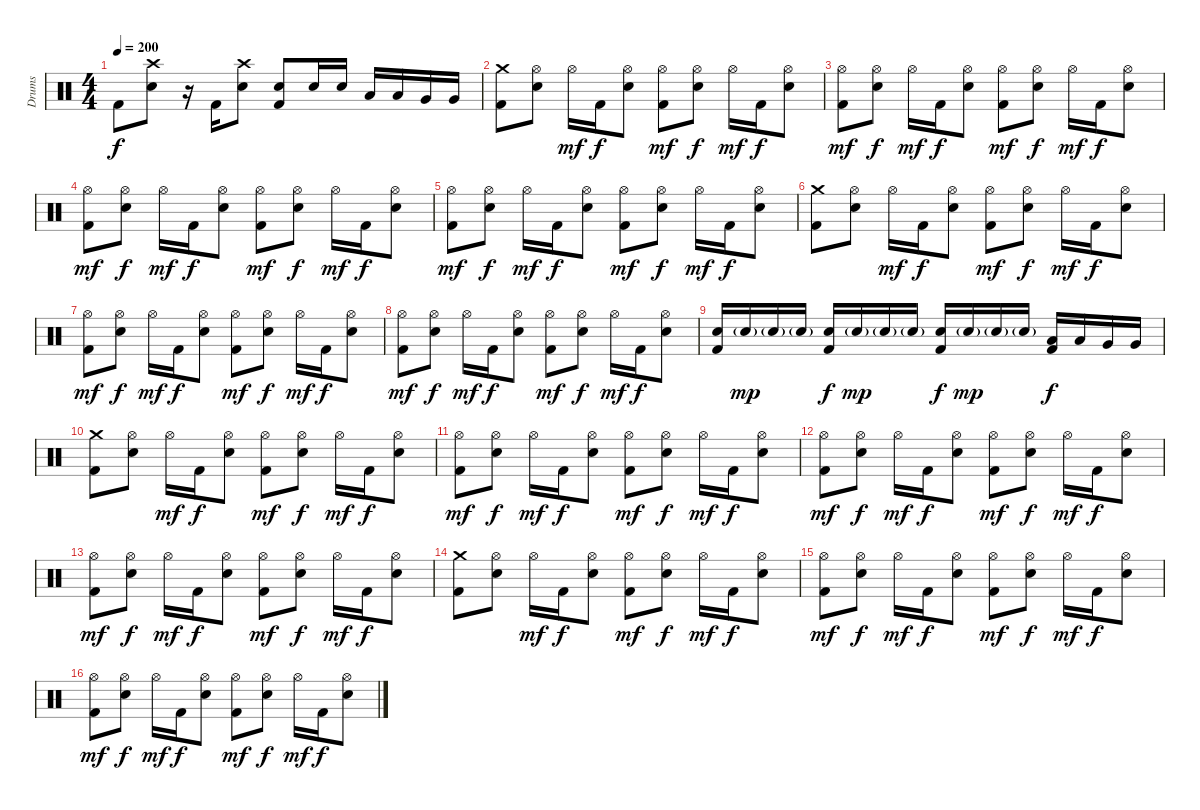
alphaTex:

\track ("Drums" "Drums") {instrument percussion}
\staff {score}
\articulation defaults
\ts (4 4)
\tempo 200
\clef neutral
\ks c "Kick (hit) 2".8{dy f}
("Crash high (hit)" "Electric Snare (hit)").8 r.16 "Kick (hit) 2".16 ("Crash high (hit)" "Electric Snare (hit)").8 ("Electric Snare (hit)" "Kick (hit) 2").8 "Electric Snare (hit)".16 "Electric Snare (hit)".16 "Low Tom (hit)".16 "Low Tom (hit)".16 "Very Low Tom (hit)".16 "Very Low Tom (hit)".16 |
("Crash medium (hit)" "Kick (hit) 2").8 ("Hi-Hat (open)" "Electric Snare (hit)").8 "Hi-Hat (open)".16{dy mf} "Kick (hit) 2".16{dy f} ("Hi-Hat (open)" "Electric Snare (hit)").8 ("Hi-Hat (open)" "Kick (hit) 2").8{dy mf} ("Hi-Hat (open)" "Electric Snare (hit)").8{dy f} "Hi-Hat (open)".16{dy mf} "Kick (hit) 2".16{dy f} ("Hi-Hat (open)" "Electric Snare (hit)").8 |
("Hi-Hat (open)" "Kick (hit) 2").8{dy mf} ("Hi-Hat (open)" "Electric Snare (hit)").8{dy f} "Hi-Hat (open)".16{dy mf} "Kick (hit) 2".16{dy f} ("Hi-Hat (open)" "Electric Snare (hit)").8 ("Hi-Hat (open)" "Kick (hit) 2").8{dy mf} ("Hi-Hat (open)" "Electric Snare (hit)").8{dy f} "Hi-Hat (open)".16{dy mf} "Kick (hit) 2".16{dy f} ("Hi-Hat (open)" "Electric Snare (hit)").8 |
("Hi-Hat (open)" "Kick (hit) 2").8{dy mf} ("Hi-Hat (open)" "Electric Snare (hit)").8{dy f} "Hi-Hat (open)".16{dy mf} "Kick (hit) 2".16{dy f} ("Hi-Hat (open)" "Electric Snare (hit)").8 ("Hi-Hat (open)" "Kick (hit) 2").8{dy mf} ("Hi-Hat (open)" "Electric Snare (hit)").8{dy f} "Hi-Hat (open)".16{dy mf} "Kick (hit) 2".16{dy f} ("Hi-Hat (open)" "Electric Snare (hit)").8 |
("Hi-Hat (open)" "Kick (hit) 2").8{dy mf} ("Hi-Hat (open)" "Electric Snare (hit)").8{dy f} "Hi-Hat (open)".16{dy mf} "Kick (hit) 2".16{dy f} ("Hi-Hat (open)" "Electric Snare (hit)").8 ("Hi-Hat (open)" "Kick (hit) 2").8{dy mf} ("Hi-Hat (open)" "Electric Snare (hit)").8{dy f} "Hi-Hat (open)".16{dy mf} "Kick (hit) 2".16{dy f} ("Hi-Hat (open)" "Electric Snare (hit)").8 |
("Crash medium (hit)" "Kick (hit) 2").8 ("Hi-Hat (open)" "Electric Snare (hit)").8 "Hi-Hat (open)".16{dy mf} "Kick (hit) 2".16{dy f} ("Hi-Hat (open)" "Electric Snare (hit)").8 ("Hi-Hat (open)" "Kick (hit) 2").8{dy mf} ("Hi-Hat (open)" "Electric Snare (hit)").8{dy f} "Hi-Hat (open)".16{dy mf} "Kick (hit) 2".16{dy f} ("Hi-Hat (open)" "Electric Snare (hit)").8 |
("Hi-Hat (open)" "Kick (hit) 2").8{dy mf} ("Hi-Hat (open)" "Electric Snare (hit)").8{dy f} "Hi-Hat (open)".16{dy mf} "Kick (hit) 2".16{dy f} ("Hi-Hat (open)" "Electric Snare (hit)").8 ("Hi-Hat (open)" "Kick (hit) 2").8{dy mf} ("Hi-Hat (open)" "Electric Snare (hit)").8{dy f} "Hi-Hat (open)".16{dy mf} "Kick (hit) 2".16{dy f} ("Hi-Hat (open)" "Electric Snare (hit)").8 |
("Hi-Hat (open)" "Kick (hit) 2").8{dy mf} ("Hi-Hat (open)" "Electric Snare (hit)").8{dy f} "Hi-Hat (open)".16{dy mf} "Kick (hit) 2".16{dy f} ("Hi-Hat (open)" "Electric Snare (hit)").8 ("Hi-Hat (open)" "Kick (hit) 2").8{dy mf} ("Hi-Hat (open)" "Electric Snare (hit)").8{dy f} "Hi-Hat (open)".16{dy mf} "Kick (hit) 2".16{dy f} ("Hi-Hat (open)" "Electric Snare (hit)").8 |
("Electric Snare (hit)" "Kick (hit) 2").16 "Electric Snare (hit)"{g}.16{dy mp} "Electric Snare (hit)"{g}.16 "Electric Snare (hit)"{g}.16 ("Electric Snare (hit)" "Kick (hit) 2").16{dy f} "Electric Snare (hit)"{g}.16{dy mp} "Electric Snare (hit)"{g}.16 "Electric Snare (hit)"{g}.16 ("Electric Snare (hit)" "Kick (hit) 2").16{dy f} "Electric Snare (hit)"{g}.16{dy mp} "Electric Snare (hit)"{g}.16 "Electric Snare (hit)"{g}.16 ("Low Tom (hit)" "Kick (hit) 2").16{dy f} "Low Tom (hit)".16 "Very Low Tom (hit)".16 "Very Low Tom (hit)".16 |
("Crash medium (hit)" "Kick (hit) 2").8 ("Hi-Hat (open)" "Electric Snare (hit)").8 "Hi-Hat (open)".16{dy mf} "Kick (hit) 2".16{dy f} ("Hi-Hat (open)" "Electric Snare (hit)").8 ("Hi-Hat (open)" "Kick (hit) 2").8{dy mf} ("Hi-Hat (open)" "Electric Snare (hit)").8{dy f} "Hi-Hat (open)".16{dy mf} "Kick (hit) 2".16{dy f} ("Hi-Hat (open)" "Electric Snare (hit)").8 |
("Hi-Hat (open)" "Kick (hit) 2").8{dy mf} ("Hi-Hat (open)" "Electric Snare (hit)").8{dy f} "Hi-Hat (open)".16{dy mf} "Kick (hit) 2".16{dy f} ("Hi-Hat (open)" "Electric Snare (hit)").8 ("Hi-Hat (open)" "Kick (hit) 2").8{dy mf} ("Hi-Hat (open)" "Electric Snare (hit)").8{dy f} "Hi-Hat (open)".16{dy mf} "Kick (hit) 2".16{dy f} ("Hi-Hat (open)" "Electric Snare (hit)").8 |
("Hi-Hat (open)" "Kick (hit) 2").8{dy mf} ("Hi-Hat (open)" "Electric Snare (hit)").8{dy f} "Hi-Hat (open)".16{dy mf} "Kick (hit) 2".16{dy f} ("Hi-Hat (open)" "Electric Snare (hit)").8 ("Hi-Hat (open)" "Kick (hit) 2").8{dy mf} ("Hi-Hat (open)" "Electric Snare (hit)").8{dy f} "Hi-Hat (open)".16{dy mf} "Kick (hit) 2".16{dy f} ("Hi-Hat (open)" "Electric Snare (hit)").8 |
("Hi-Hat (open)" "Kick (hit) 2").8{dy mf} ("Hi-Hat (open)" "Electric Snare (hit)").8{dy f} "Hi-Hat (open)".16{dy mf} "Kick (hit) 2".16{dy f} ("Hi-Hat (open)" "Electric Snare (hit)").8 ("Hi-Hat (open)" "Kick (hit) 2").8{dy mf} ("Hi-Hat (open)" "Electric Snare (hit)").8{dy f} "Hi-Hat (open)".16{dy mf} "Kick (hit) 2".16{dy f} ("Hi-Hat (open)" "Electric Snare (hit)").8 |
("Crash medium (hit)" "Kick (hit) 2").8 ("Hi-Hat (open)" "Electric Snare (hit)").8 "Hi-Hat (open)".16{dy mf} "Kick (hit) 2".16{dy f} ("Hi-Hat (open)" "Electric Snare (hit)").8 ("Hi-Hat (open)" "Kick (hit) 2").8{dy mf} ("Hi-Hat (open)" "Electric Snare (hit)").8{dy f} "Hi-Hat (open)".16{dy mf} "Kick (hit) 2".16{dy f} ("Hi-Hat (open)" "Electric Snare (hit)").8 |
("Hi-Hat (open)" "Kick (hit) 2").8{dy mf} ("Hi-Hat (open)" "Electric Snare (hit)").8{dy f} "Hi-Hat (open)".16{dy mf} "Kick (hit) 2".16{dy f} ("Hi-Hat (open)" "Electric Snare (hit)").8 ("Hi-Hat (open)" "Kick (hit) 2").8{dy mf} ("Hi-Hat (open)" "Electric Snare (hit)").8{dy f} "Hi-Hat (open)".16{dy mf} "Kick (hit) 2".16{dy f} ("Hi-Hat (open)" "Electric Snare (hit)").8 |
("Hi-Hat (open)" "Kick (hit) 2").8{dy mf} ("Hi-Hat (open)" "Electric Snare (hit)").8{dy f} "Hi-Hat (open)".16{dy mf} "Kick (hit) 2".16{dy f} ("Hi-Hat (open)" "Electric Snare (hit)").8 ("Hi-Hat (open)" "Kick (hit) 2").8{dy mf} ("Hi-Hat (open)" "Electric Snare (hit)").8{dy f} "Hi-Hat (open)".16{dy mf} "Kick (hit) 2".16{dy f} ("Hi-Hat (open)" "Electric Snare (hit)").8
